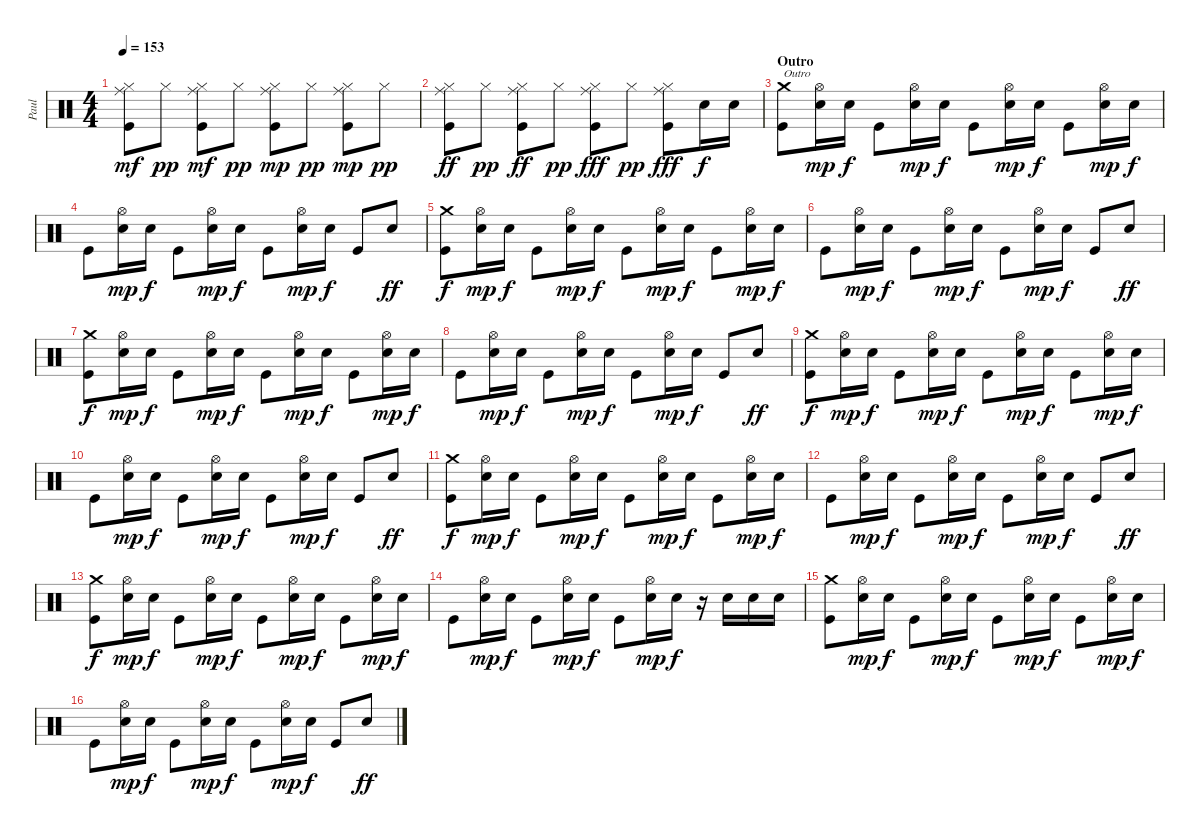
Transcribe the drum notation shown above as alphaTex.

\track ("Paul" "Paul") {instrument percussion}
\staff {score}
\articulation defaults
\ts (4 4)
\tempo 153
\clef neutral
\ks c
("Kick (hit)" "Hi-Hat (closed)" "Ride (middle)").8{dy mf volume 8} "Hi-Hat (closed)".8{dy pp} ("Kick (hit)" "Hi-Hat (closed)" "Ride (middle)").8{dy mf} "Hi-Hat (closed)".8{dy pp} ("Kick (hit)" "Hi-Hat (closed)" "Ride (middle)").8{dy mp} "Hi-Hat (closed)".8{dy pp} ("Kick (hit)" "Hi-Hat (closed)" "Ride (middle)").8{dy mp} "Hi-Hat (closed)".8{dy pp} |
("Kick (hit)" "Hi-Hat (closed)" "Ride (middle)").8{dy ff} "Hi-Hat (closed)".8{dy pp} ("Kick (hit)" "Hi-Hat (closed)" "Ride (middle)").8{dy ff} "Hi-Hat (closed)".8{dy pp} ("Kick (hit)" "Hi-Hat (closed)" "Ride (middle)").8{dy fff} "Hi-Hat (closed)".8{dy pp} ("Kick (hit)" "Hi-Hat (closed)" "Ride (middle)").8{dy fff} "Electric Snare (hit)".16{dy f} "Electric Snare (hit)".16 |
\section ("" "Outro")
("Kick (hit)" "Crash medium (hit)").8{txt "Outro" volume 6} ("Hi-Hat (open)" "Electric Snare (hit)").16{dy mp} "Electric Snare (hit)".16{dy f} "Kick (hit)".8 ("Hi-Hat (open)" "Electric Snare (hit)").16{dy mp} "Electric Snare (hit)".16{dy f} "Kick (hit)".8 ("Hi-Hat (open)" "Electric Snare (hit)").16{dy mp} "Electric Snare (hit)".16{dy f} "Kick (hit)".8 ("Hi-Hat (open)" "Electric Snare (hit)").16{dy mp} "Electric Snare (hit)".16{dy f} |
"Kick (hit)".8 ("Hi-Hat (open)" "Electric Snare (hit)").16{dy mp} "Electric Snare (hit)".16{dy f} "Kick (hit)".8 ("Hi-Hat (open)" "Electric Snare (hit)").16{dy mp} "Electric Snare (hit)".16{dy f} "Kick (hit)".8 ("Hi-Hat (open)" "Electric Snare (hit)").16{dy mp} "Electric Snare (hit)".16{dy f} "Kick (hit)".8 "Electric Snare (hit)".8{dy ff} |
("Kick (hit)" "Crash medium (hit)").8{dy f} ("Hi-Hat (open)" "Electric Snare (hit)").16{dy mp} "Electric Snare (hit)".16{dy f} "Kick (hit)".8 ("Hi-Hat (open)" "Electric Snare (hit)").16{dy mp} "Electric Snare (hit)".16{dy f} "Kick (hit)".8 ("Hi-Hat (open)" "Electric Snare (hit)").16{dy mp} "Electric Snare (hit)".16{dy f} "Kick (hit)".8 ("Hi-Hat (open)" "Electric Snare (hit)").16{dy mp} "Electric Snare (hit)".16{dy f} |
"Kick (hit)".8 ("Hi-Hat (open)" "Electric Snare (hit)").16{dy mp} "Electric Snare (hit)".16{dy f} "Kick (hit)".8 ("Hi-Hat (open)" "Electric Snare (hit)").16{dy mp} "Electric Snare (hit)".16{dy f} "Kick (hit)".8 ("Hi-Hat (open)" "Electric Snare (hit)").16{dy mp} "Electric Snare (hit)".16{dy f} "Kick (hit)".8 "Electric Snare (hit)".8{dy ff} |
("Kick (hit)" "Crash medium (hit)").8{dy f} ("Hi-Hat (open)" "Electric Snare (hit)").16{dy mp} "Electric Snare (hit)".16{dy f} "Kick (hit)".8 ("Hi-Hat (open)" "Electric Snare (hit)").16{dy mp} "Electric Snare (hit)".16{dy f} "Kick (hit)".8 ("Hi-Hat (open)" "Electric Snare (hit)").16{dy mp} "Electric Snare (hit)".16{dy f} "Kick (hit)".8 ("Hi-Hat (open)" "Electric Snare (hit)").16{dy mp} "Electric Snare (hit)".16{dy f} |
"Kick (hit)".8 ("Hi-Hat (open)" "Electric Snare (hit)").16{dy mp} "Electric Snare (hit)".16{dy f} "Kick (hit)".8 ("Hi-Hat (open)" "Electric Snare (hit)").16{dy mp} "Electric Snare (hit)".16{dy f} "Kick (hit)".8 ("Hi-Hat (open)" "Electric Snare (hit)").16{dy mp} "Electric Snare (hit)".16{dy f} "Kick (hit)".8 "Electric Snare (hit)".8{dy ff} |
("Kick (hit)" "Crash medium (hit)").8{dy f} ("Hi-Hat (open)" "Electric Snare (hit)").16{dy mp} "Electric Snare (hit)".16{dy f} "Kick (hit)".8 ("Hi-Hat (open)" "Electric Snare (hit)").16{dy mp} "Electric Snare (hit)".16{dy f} "Kick (hit)".8 ("Hi-Hat (open)" "Electric Snare (hit)").16{dy mp} "Electric Snare (hit)".16{dy f} "Kick (hit)".8 ("Hi-Hat (open)" "Electric Snare (hit)").16{dy mp} "Electric Snare (hit)".16{dy f} |
"Kick (hit)".8 ("Hi-Hat (open)" "Electric Snare (hit)").16{dy mp} "Electric Snare (hit)".16{dy f} "Kick (hit)".8 ("Hi-Hat (open)" "Electric Snare (hit)").16{dy mp} "Electric Snare (hit)".16{dy f} "Kick (hit)".8 ("Hi-Hat (open)" "Electric Snare (hit)").16{dy mp} "Electric Snare (hit)".16{dy f} "Kick (hit)".8 "Electric Snare (hit)".8{dy ff} |
("Kick (hit)" "Crash medium (hit)").8{dy f} ("Hi-Hat (open)" "Electric Snare (hit)").16{dy mp} "Electric Snare (hit)".16{dy f} "Kick (hit)".8 ("Hi-Hat (open)" "Electric Snare (hit)").16{dy mp} "Electric Snare (hit)".16{dy f} "Kick (hit)".8 ("Hi-Hat (open)" "Electric Snare (hit)").16{dy mp} "Electric Snare (hit)".16{dy f} "Kick (hit)".8 ("Hi-Hat (open)" "Electric Snare (hit)").16{dy mp} "Electric Snare (hit)".16{dy f} |
"Kick (hit)".8 ("Hi-Hat (open)" "Electric Snare (hit)").16{dy mp} "Electric Snare (hit)".16{dy f} "Kick (hit)".8 ("Hi-Hat (open)" "Electric Snare (hit)").16{dy mp} "Electric Snare (hit)".16{dy f} "Kick (hit)".8 ("Hi-Hat (open)" "Electric Snare (hit)").16{dy mp} "Electric Snare (hit)".16{dy f} "Kick (hit)".8 "Electric Snare (hit)".8{dy ff} |
("Kick (hit)" "Crash medium (hit)").8{dy f} ("Hi-Hat (open)" "Electric Snare (hit)").16{dy mp} "Electric Snare (hit)".16{dy f} "Kick (hit)".8 ("Hi-Hat (open)" "Electric Snare (hit)").16{dy mp} "Electric Snare (hit)".16{dy f} "Kick (hit)".8 ("Hi-Hat (open)" "Electric Snare (hit)").16{dy mp} "Electric Snare (hit)".16{dy f} "Kick (hit)".8 ("Hi-Hat (open)" "Electric Snare (hit)").16{dy mp} "Electric Snare (hit)".16{dy f} |
"Kick (hit)".8 ("Hi-Hat (open)" "Electric Snare (hit)").16{dy mp} "Electric Snare (hit)".16{dy f} "Kick (hit)".8 ("Hi-Hat (open)" "Electric Snare (hit)").16{dy mp} "Electric Snare (hit)".16{dy f} "Kick (hit)".8 ("Hi-Hat (open)" "Electric Snare (hit)").16{dy mp} "Electric Snare (hit)".16{dy f} r.16 "Electric Snare (hit)".16 "Electric Snare (hit)".16 "Electric Snare (hit)".16 |
("Kick (hit)" "Crash medium (hit)").8 ("Hi-Hat (open)" "Electric Snare (hit)").16{dy mp} "Electric Snare (hit)".16{dy f} "Kick (hit)".8 ("Hi-Hat (open)" "Electric Snare (hit)").16{dy mp} "Electric Snare (hit)".16{dy f} "Kick (hit)".8 ("Hi-Hat (open)" "Electric Snare (hit)").16{dy mp} "Electric Snare (hit)".16{dy f} "Kick (hit)".8 ("Hi-Hat (open)" "Electric Snare (hit)").16{dy mp} "Electric Snare (hit)".16{dy f} |
"Kick (hit)".8 ("Hi-Hat (open)" "Electric Snare (hit)").16{dy mp} "Electric Snare (hit)".16{dy f} "Kick (hit)".8 ("Hi-Hat (open)" "Electric Snare (hit)").16{dy mp} "Electric Snare (hit)".16{dy f} "Kick (hit)".8 ("Hi-Hat (open)" "Electric Snare (hit)").16{dy mp} "Electric Snare (hit)".16{dy f} "Kick (hit)".8 "Electric Snare (hit)".8{dy ff}
